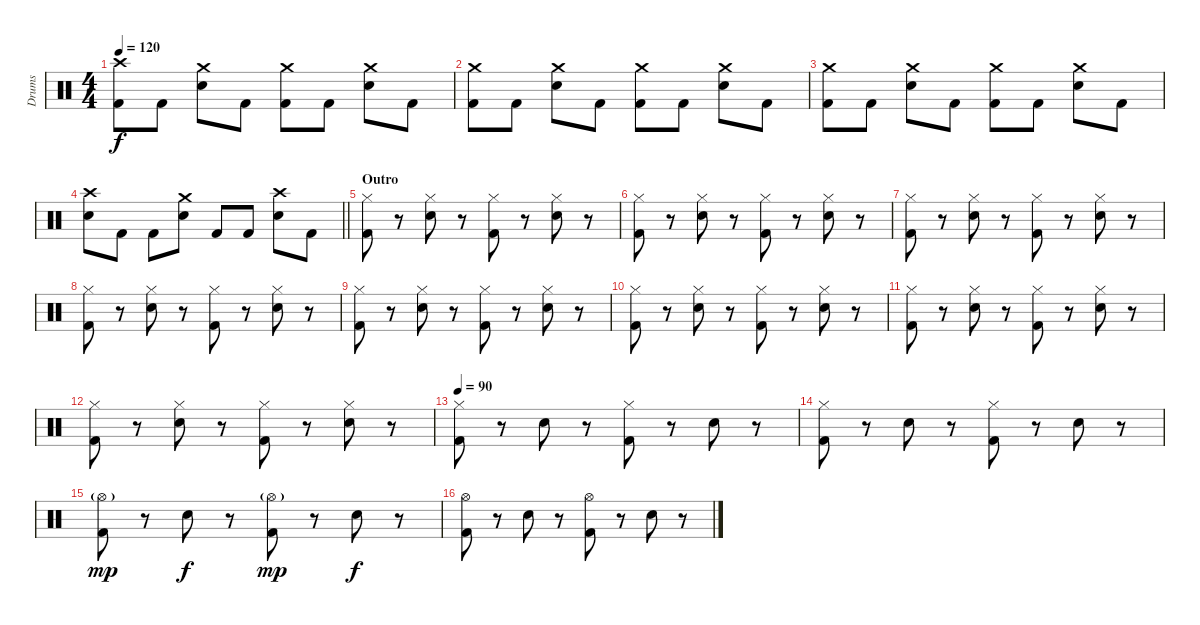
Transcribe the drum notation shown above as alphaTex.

\track ("Drums " "Drums ") {instrument percussion}
\staff {score}
\articulation defaults
\ts (4 4)
\tempo 120
\clef neutral
\ks c
("Crash high (hit)" "Kick (hit) 2").8{dy f} "Kick (hit) 2".8 ("Crash medium (hit)" "Electric Snare (hit)").8 "Kick (hit) 2".8 ("Crash medium (hit)" "Kick (hit) 2").8 "Kick (hit) 2".8 ("Crash medium (hit)" "Electric Snare (hit)").8 "Kick (hit) 2".8 |
("Crash medium (hit)" "Kick (hit) 2").8 "Kick (hit) 2".8 ("Crash medium (hit)" "Electric Snare (hit)").8 "Kick (hit) 2".8 ("Crash medium (hit)" "Kick (hit) 2").8 "Kick (hit) 2".8 ("Crash medium (hit)" "Electric Snare (hit)").8 "Kick (hit) 2".8 |
("Crash medium (hit)" "Kick (hit) 2").8 "Kick (hit) 2".8 ("Crash medium (hit)" "Electric Snare (hit)").8 "Kick (hit) 2".8 ("Crash medium (hit)" "Kick (hit) 2").8 "Kick (hit) 2".8 ("Crash medium (hit)" "Electric Snare (hit)").8 "Kick (hit) 2".8 |
\barLineRight lightlight
("Crash high (hit)" "Electric Snare (hit)").8 "Kick (hit) 2".8 "Kick (hit) 2".8 ("Crash medium (hit)" "Electric Snare (hit)").8 "Kick (hit) 2".8 "Kick (hit) 2".8 ("Crash high (hit)" "Electric Snare (hit)").8 "Kick (hit) 2".8 |
\section ("" "Outro")
("Hi-Hat (closed)" "Kick (hit) 2").8 r.8 ("Hi-Hat (closed)" "Electric Snare (hit)").8 r.8 ("Hi-Hat (closed)" "Kick (hit) 2").8 r.8 ("Hi-Hat (closed)" "Electric Snare (hit)").8 r.8 |
("Hi-Hat (closed)" "Kick (hit) 2").8 r.8 ("Hi-Hat (closed)" "Electric Snare (hit)").8 r.8 ("Hi-Hat (closed)" "Kick (hit) 2").8 r.8 ("Hi-Hat (closed)" "Electric Snare (hit)").8 r.8 |
("Hi-Hat (closed)" "Kick (hit) 2").8 r.8 ("Hi-Hat (closed)" "Electric Snare (hit)").8 r.8 ("Hi-Hat (closed)" "Kick (hit) 2").8 r.8 ("Hi-Hat (closed)" "Electric Snare (hit)").8 r.8 |
("Hi-Hat (closed)" "Kick (hit) 2").8 r.8 ("Hi-Hat (closed)" "Electric Snare (hit)").8 r.8 ("Hi-Hat (closed)" "Kick (hit) 2").8 r.8 ("Hi-Hat (closed)" "Electric Snare (hit)").8 r.8 |
("Hi-Hat (closed)" "Kick (hit) 2").8 r.8 ("Hi-Hat (closed)" "Electric Snare (hit)").8 r.8 ("Hi-Hat (closed)" "Kick (hit) 2").8 r.8 ("Hi-Hat (closed)" "Electric Snare (hit)").8 r.8 |
("Hi-Hat (closed)" "Kick (hit) 2").8 r.8 ("Hi-Hat (closed)" "Electric Snare (hit)").8 r.8 ("Hi-Hat (closed)" "Kick (hit) 2").8 r.8 ("Hi-Hat (closed)" "Electric Snare (hit)").8 r.8 |
("Hi-Hat (closed)" "Kick (hit) 2").8 r.8 ("Hi-Hat (closed)" "Electric Snare (hit)").8 r.8 ("Hi-Hat (closed)" "Kick (hit) 2").8 r.8 ("Hi-Hat (closed)" "Electric Snare (hit)").8 r.8 |
("Hi-Hat (closed)" "Kick (hit) 2").8 r.8 ("Hi-Hat (closed)" "Electric Snare (hit)").8 r.8 ("Hi-Hat (closed)" "Kick (hit) 2").8 r.8 ("Hi-Hat (closed)" "Electric Snare (hit)").8 r.8 |
\tempo 90
("Hi-Hat (closed)" "Kick (hit) 2").8 r.8 "Electric Snare (hit)".8 r.8 ("Hi-Hat (closed)" "Kick (hit) 2").8 r.8 "Electric Snare (hit)".8 r.8 |
("Hi-Hat (closed)" "Kick (hit) 2").8 r.8 "Electric Snare (hit)".8 r.8 ("Hi-Hat (closed)" "Kick (hit) 2").8 r.8 "Electric Snare (hit)".8 r.8 |
("Hi-Hat (open)"{g} "Kick (hit) 2").8{dy mp} r.8 "Electric Snare (hit)".8{dy f} r.8 ("Hi-Hat (open)"{g} "Kick (hit) 2").8{dy mp} r.8 "Electric Snare (hit)".8{dy f} r.8 |
("Hi-Hat (open)" "Kick (hit) 2").8 r.8 "Electric Snare (hit)".8 r.8 ("Hi-Hat (open)" "Kick (hit) 2").8 r.8 "Electric Snare (hit)".8 r.8
